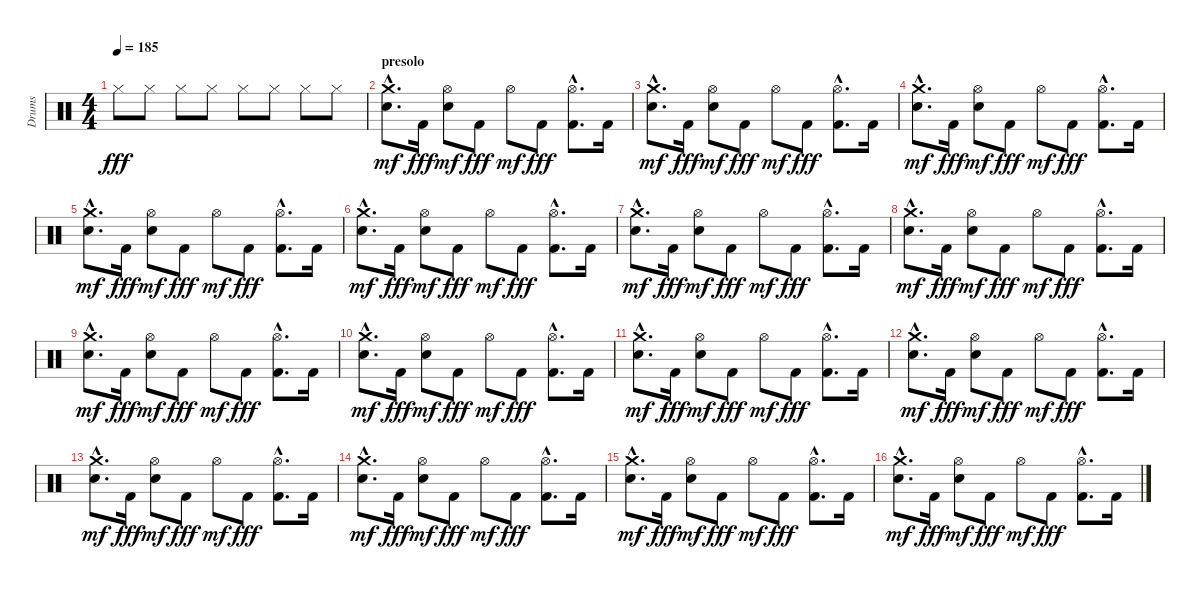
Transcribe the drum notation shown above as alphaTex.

\track ("Drums" "Drums") {instrument percussion}
\staff {score}
\articulation defaults
\ts (4 4)
\tempo 185
\clef neutral
\ks c "Hi-Hat (closed)".8{dy fff} "Hi-Hat (closed)".8 "Hi-Hat (closed)".8 "Hi-Hat (closed)".8 "Hi-Hat (closed)".8 "Hi-Hat (closed)".8 "Hi-Hat (closed)".8 "Hi-Hat (closed)".8
|
\section ("" "presolo")
("Crash medium (hit)"{hac} "Electric Snare (hit)"{hac}).8{d dy mf} "Kick (hit) 2".16{dy fff} ("Hi-Hat (open)" "Electric Snare (hit)").8{dy mf} "Kick (hit) 2".8{dy fff} "Hi-Hat (open)".8{dy mf} "Kick (hit) 2".8{dy fff} ("Hi-Hat (open)"{hac} "Kick (hit) 2"{hac}).8{d} "Kick (hit) 2".16 |
("Crash medium (hit)"{hac} "Electric Snare (hit)"{hac}).8{d dy mf} "Kick (hit) 2".16{dy fff} ("Hi-Hat (open)" "Electric Snare (hit)").8{dy mf} "Kick (hit) 2".8{dy fff} "Hi-Hat (open)".8{dy mf} "Kick (hit) 2".8{dy fff} ("Hi-Hat (open)"{hac} "Kick (hit) 2"{hac}).8{d} "Kick (hit) 2".16 |
("Crash medium (hit)"{hac} "Electric Snare (hit)"{hac}).8{d dy mf} "Kick (hit) 2".16{dy fff} ("Hi-Hat (open)" "Electric Snare (hit)").8{dy mf} "Kick (hit) 2".8{dy fff} "Hi-Hat (open)".8{dy mf} "Kick (hit) 2".8{dy fff} ("Hi-Hat (open)"{hac} "Kick (hit) 2"{hac}).8{d} "Kick (hit) 2".16 |
("Crash medium (hit)"{hac} "Electric Snare (hit)"{hac}).8{d dy mf} "Kick (hit) 2".16{dy fff} ("Hi-Hat (open)" "Electric Snare (hit)").8{dy mf} "Kick (hit) 2".8{dy fff} "Hi-Hat (open)".8{dy mf} "Kick (hit) 2".8{dy fff} ("Hi-Hat (open)"{hac} "Kick (hit) 2"{hac}).8{d} "Kick (hit) 2".16 |
("Crash medium (hit)"{hac} "Electric Snare (hit)"{hac}).8{d dy mf} "Kick (hit) 2".16{dy fff} ("Hi-Hat (open)" "Electric Snare (hit)").8{dy mf} "Kick (hit) 2".8{dy fff} "Hi-Hat (open)".8{dy mf} "Kick (hit) 2".8{dy fff} ("Hi-Hat (open)"{hac} "Kick (hit) 2"{hac}).8{d} "Kick (hit) 2".16 |
("Crash medium (hit)"{hac} "Electric Snare (hit)"{hac}).8{d dy mf} "Kick (hit) 2".16{dy fff} ("Hi-Hat (open)" "Electric Snare (hit)").8{dy mf} "Kick (hit) 2".8{dy fff} "Hi-Hat (open)".8{dy mf} "Kick (hit) 2".8{dy fff} ("Hi-Hat (open)"{hac} "Kick (hit) 2"{hac}).8{d} "Kick (hit) 2".16 |
("Crash medium (hit)"{hac} "Electric Snare (hit)"{hac}).8{d dy mf} "Kick (hit) 2".16{dy fff} ("Hi-Hat (open)" "Electric Snare (hit)").8{dy mf} "Kick (hit) 2".8{dy fff} "Hi-Hat (open)".8{dy mf} "Kick (hit) 2".8{dy fff} ("Hi-Hat (open)"{hac} "Kick (hit) 2"{hac}).8{d} "Kick (hit) 2".16 |
("Crash medium (hit)"{hac} "Electric Snare (hit)"{hac}).8{d dy mf} "Kick (hit) 2".16{dy fff} ("Hi-Hat (open)" "Electric Snare (hit)").8{dy mf} "Kick (hit) 2".8{dy fff} "Hi-Hat (open)".8{dy mf} "Kick (hit) 2".8{dy fff} ("Hi-Hat (open)"{hac} "Kick (hit) 2"{hac}).8{d} "Kick (hit) 2".16 |
("Crash medium (hit)"{hac} "Electric Snare (hit)"{hac}).8{d dy mf} "Kick (hit) 2".16{dy fff} ("Hi-Hat (open)" "Electric Snare (hit)").8{dy mf} "Kick (hit) 2".8{dy fff} "Hi-Hat (open)".8{dy mf} "Kick (hit) 2".8{dy fff} ("Hi-Hat (open)"{hac} "Kick (hit) 2"{hac}).8{d} "Kick (hit) 2".16 |
("Crash medium (hit)"{hac} "Electric Snare (hit)"{hac}).8{d dy mf} "Kick (hit) 2".16{dy fff} ("Hi-Hat (open)" "Electric Snare (hit)").8{dy mf} "Kick (hit) 2".8{dy fff} "Hi-Hat (open)".8{dy mf} "Kick (hit) 2".8{dy fff} ("Hi-Hat (open)"{hac} "Kick (hit) 2"{hac}).8{d} "Kick (hit) 2".16 |
("Crash medium (hit)"{hac} "Electric Snare (hit)"{hac}).8{d dy mf} "Kick (hit) 2".16{dy fff} ("Hi-Hat (open)" "Electric Snare (hit)").8{dy mf} "Kick (hit) 2".8{dy fff} "Hi-Hat (open)".8{dy mf} "Kick (hit) 2".8{dy fff} ("Hi-Hat (open)"{hac} "Kick (hit) 2"{hac}).8{d} "Kick (hit) 2".16 |
("Crash medium (hit)"{hac} "Electric Snare (hit)"{hac}).8{d dy mf} "Kick (hit) 2".16{dy fff} ("Hi-Hat (open)" "Electric Snare (hit)").8{dy mf} "Kick (hit) 2".8{dy fff} "Hi-Hat (open)".8{dy mf} "Kick (hit) 2".8{dy fff} ("Hi-Hat (open)"{hac} "Kick (hit) 2"{hac}).8{d} "Kick (hit) 2".16 |
("Crash medium (hit)"{hac} "Electric Snare (hit)"{hac}).8{d dy mf} "Kick (hit) 2".16{dy fff} ("Hi-Hat (open)" "Electric Snare (hit)").8{dy mf} "Kick (hit) 2".8{dy fff} "Hi-Hat (open)".8{dy mf} "Kick (hit) 2".8{dy fff} ("Hi-Hat (open)"{hac} "Kick (hit) 2"{hac}).8{d} "Kick (hit) 2".16 |
("Crash medium (hit)"{hac} "Electric Snare (hit)"{hac}).8{d dy mf} "Kick (hit) 2".16{dy fff} ("Hi-Hat (open)" "Electric Snare (hit)").8{dy mf} "Kick (hit) 2".8{dy fff} "Hi-Hat (open)".8{dy mf} "Kick (hit) 2".8{dy fff} ("Hi-Hat (open)"{hac} "Kick (hit) 2"{hac}).8{d} "Kick (hit) 2".16 |
("Crash medium (hit)"{hac} "Electric Snare (hit)"{hac}).8{d dy mf} "Kick (hit) 2".16{dy fff} ("Hi-Hat (open)" "Electric Snare (hit)").8{dy mf} "Kick (hit) 2".8{dy fff} "Hi-Hat (open)".8{dy mf} "Kick (hit) 2".8{dy fff} ("Hi-Hat (open)"{hac} "Kick (hit) 2"{hac}).8{d} "Kick (hit) 2".16
